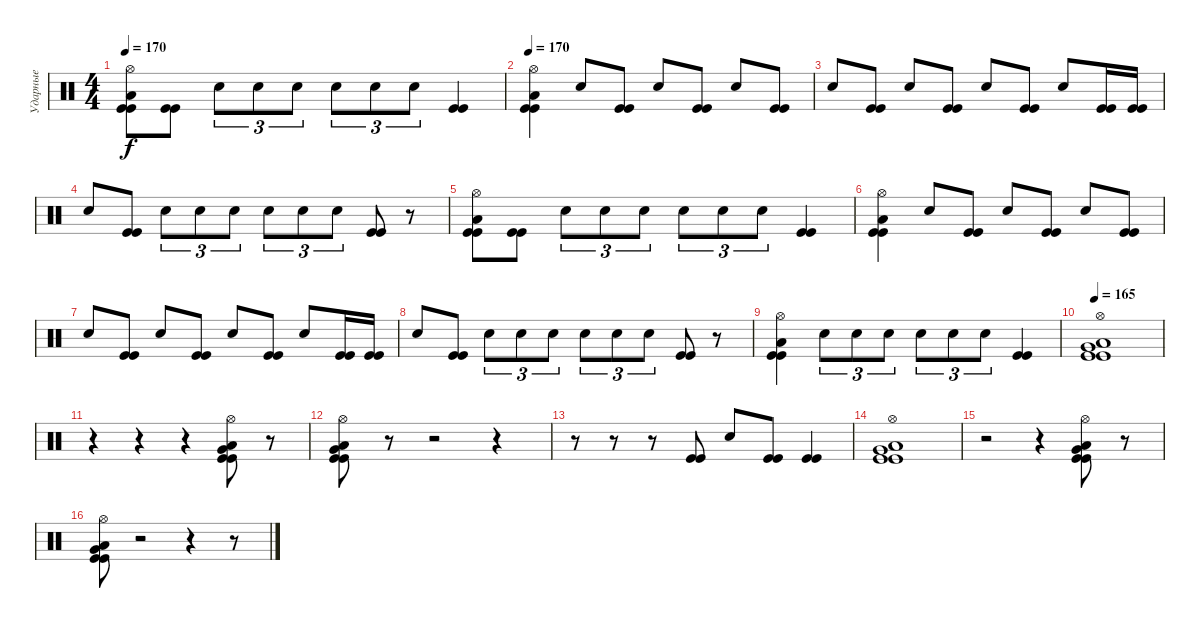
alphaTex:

\track ("Ударные" "Ударные") {instrument percussion}
\staff {score}
\articulation defaults
\ts (4 4)
\tempo 170
\clef neutral
\ks c
("Hi-Hat (open)" "Low Floor Tom (hit)" "Kick (hit)" "Kick (hit)").8{dy f} ("Kick (hit)" "Kick (hit)").8 "Snare (hit) 2".8{tu (3 2)} "Snare (hit) 2".8{tu (3 2)} "Snare (hit) 2".8{tu (3 2)} "Snare (hit) 2".8{tu (3 2)} "Snare (hit) 2".8{tu (3 2)} "Snare (hit) 2".8{tu (3 2)} ("Kick (hit)" "Kick (hit)").4 |
\tempo 170
("Hi-Hat (open)" "Low Floor Tom (hit)" "Kick (hit)" "Kick (hit)").4 "Snare (hit) 2".8 ("Kick (hit)" "Kick (hit)").8 "Snare (hit) 2".8 ("Kick (hit)" "Kick (hit)").8 "Snare (hit) 2".8 ("Kick (hit)" "Kick (hit)").8 |
"Snare (hit) 2".8 ("Kick (hit)" "Kick (hit)").8 "Snare (hit) 2".8 ("Kick (hit)" "Kick (hit)").8 "Snare (hit) 2".8 ("Kick (hit)" "Kick (hit)").8 "Snare (hit) 2".8 ("Kick (hit)" "Kick (hit)").16 ("Kick (hit)" "Kick (hit)").16 |
"Snare (hit) 2".8 ("Kick (hit)" "Kick (hit)").8 "Snare (hit) 2".8{tu (3 2)} "Snare (hit) 2".8{tu (3 2)} "Snare (hit) 2".8{tu (3 2)} "Snare (hit) 2".8{tu (3 2)} "Snare (hit) 2".8{tu (3 2)} "Snare (hit) 2".8{tu (3 2)} ("Kick (hit)" "Kick (hit)").8 r.8 |
("Hi-Hat (open)" "Low Floor Tom (hit)" "Kick (hit)" "Kick (hit)").8 ("Kick (hit)" "Kick (hit)").8 "Snare (hit) 2".8{tu (3 2)} "Snare (hit) 2".8{tu (3 2)} "Snare (hit) 2".8{tu (3 2)} "Snare (hit) 2".8{tu (3 2)} "Snare (hit) 2".8{tu (3 2)} "Snare (hit) 2".8{tu (3 2)} ("Kick (hit)" "Kick (hit)").4 |
("Hi-Hat (open)" "Low Floor Tom (hit)" "Kick (hit)" "Kick (hit)").4 "Snare (hit) 2".8 ("Kick (hit)" "Kick (hit)").8 "Snare (hit) 2".8 ("Kick (hit)" "Kick (hit)").8 "Snare (hit) 2".8 ("Kick (hit)" "Kick (hit)").8 |
"Snare (hit) 2".8 ("Kick (hit)" "Kick (hit)").8 "Snare (hit) 2".8 ("Kick (hit)" "Kick (hit)").8 "Snare (hit) 2".8 ("Kick (hit)" "Kick (hit)").8 "Snare (hit) 2".8 ("Kick (hit)" "Kick (hit)").16 ("Kick (hit)" "Kick (hit)").16 |
"Snare (hit) 2".8 ("Kick (hit)" "Kick (hit)").8 "Snare (hit) 2".8{tu (3 2)} "Snare (hit) 2".8{tu (3 2)} "Snare (hit) 2".8{tu (3 2)} "Snare (hit) 2".8{tu (3 2)} "Snare (hit) 2".8{tu (3 2)} "Snare (hit) 2".8{tu (3 2)} ("Kick (hit)" "Kick (hit)").8 r.8 |
("Hi-Hat (open)" "Low Floor Tom (hit)" "Kick (hit)" "Kick (hit)").4 "Snare (hit) 2".8{tu (3 2)} "Snare (hit) 2".8{tu (3 2)} "Snare (hit) 2".8{tu (3 2)} "Snare (hit) 2".8{tu (3 2)} "Snare (hit) 2".8{tu (3 2)} "Snare (hit) 2".8{tu (3 2)} ("Kick (hit)" "Kick (hit)").4 |
\tempo 165
("Hi-Hat (open)" "Very Low Tom (hit)" "Low Floor Tom (hit)" "Kick (hit)" "Kick (hit)").1 |
r.4 r.4 r.4 ("Hi-Hat (open)" "Very Low Tom (hit)" "Low Floor Tom (hit)" "Kick (hit)" "Kick (hit)").8 r.8 |
("Hi-Hat (open)" "Very Low Tom (hit)" "Low Floor Tom (hit)" "Kick (hit)" "Kick (hit)").8 r.8 r.2 r.4 |
r.8 r.8 r.8 ("Kick (hit)" "Kick (hit)").8 "Snare (hit) 2".8 ("Kick (hit)" "Kick (hit)").8 ("Kick (hit)" "Kick (hit)").4 |
("Hi-Hat (open)" "Very Low Tom (hit)" "Low Floor Tom (hit)" "Kick (hit)" "Kick (hit)").1 |
r.2 r.4 ("Hi-Hat (open)" "Very Low Tom (hit)" "Low Floor Tom (hit)" "Kick (hit)" "Kick (hit)").8 r.8 |
("Hi-Hat (open)" "Very Low Tom (hit)" "Low Floor Tom (hit)" "Kick (hit)" "Kick (hit)").8 r.2 r.4 r.8
